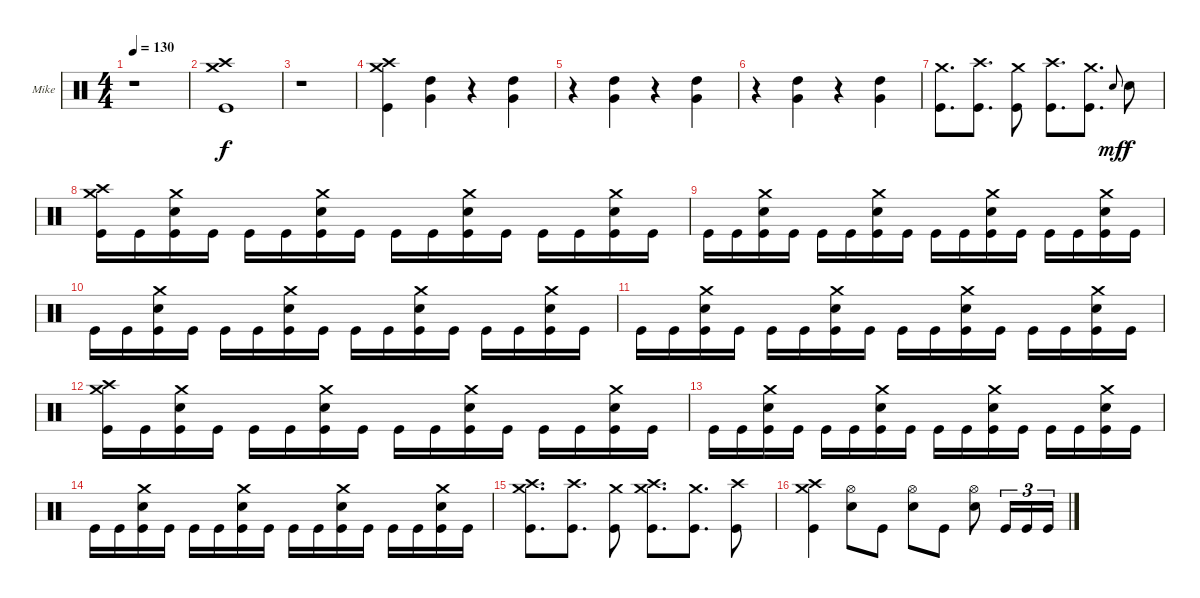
\defaultSystemsLayout 4
\bracketExtendMode groupsimilarinstruments
\firstSystemTrackNameOrientation horizontal
\otherSystemsTrackNameOrientation horizontal
\track ("Mike Portnoy" "Mike") {instrument percussion}
\staff {score}
\articulation defaults
\ts (4 4)
\tempo 130
\clef neutral
\ks c
r.1{dy f} |
("Crash medium (hit)" "Crash high (hit)" "Kick (hit)").1 |
r.1 |
("Crash medium (hit)" "Crash high (hit)" "Kick (hit)").4 ("High Tom (hit)" "Very Low Tom (hit)").4 r.4 ("High Tom (hit)" "Very Low Tom (hit)").4 |
r.4 ("High Tom (hit)" "Very Low Tom (hit)").4 r.4 ("High Tom (hit)" "Very Low Tom (hit)").4 |
r.4 ("High Tom (hit)" "Very Low Tom (hit)").4 r.4 ("High Tom (hit)" "Very Low Tom (hit)").4 |
("Crash medium (hit)" "Kick (hit)").8{d} ("Crash high (hit)" "Kick (hit)").8{d} ("Crash medium (hit)" "Kick (hit)").8 ("Crash high (hit)" "Kick (hit)").8{d} ("Crash medium (hit)" "Kick (hit)").8{d} "Snare (hit) 2".8{gr onbeat dy mf} "Snare (hit) 2".8{dy f} |
("Crash medium (hit)" "Crash high (hit)" "Kick (hit)").16 "Kick (hit)".16 ("Crash medium (hit)" "Snare (hit) 2" "Kick (hit)").16 "Kick (hit)".16 "Kick (hit)".16 "Kick (hit)".16 ("Crash medium (hit)" "Snare (hit) 2" "Kick (hit)").16 "Kick (hit)".16 "Kick (hit)".16 "Kick (hit)".16 ("Crash medium (hit)" "Snare (hit) 2" "Kick (hit)").16 "Kick (hit)".16 "Kick (hit)".16 "Kick (hit)".16 ("Crash medium (hit)" "Snare (hit) 2" "Kick (hit)").16 "Kick (hit)".16 |
"Kick (hit)".16 "Kick (hit)".16 ("Crash medium (hit)" "Snare (hit) 2" "Kick (hit)").16 "Kick (hit)".16 "Kick (hit)".16 "Kick (hit)".16 ("Crash medium (hit)" "Snare (hit) 2" "Kick (hit)").16 "Kick (hit)".16 "Kick (hit)".16 "Kick (hit)".16 ("Crash medium (hit)" "Snare (hit) 2" "Kick (hit)").16 "Kick (hit)".16 "Kick (hit)".16 "Kick (hit)".16 ("Crash medium (hit)" "Snare (hit) 2" "Kick (hit)").16 "Kick (hit)".16 |
"Kick (hit)".16 "Kick (hit)".16 ("Crash medium (hit)" "Snare (hit) 2" "Kick (hit)").16 "Kick (hit)".16 "Kick (hit)".16 "Kick (hit)".16 ("Crash medium (hit)" "Snare (hit) 2" "Kick (hit)").16 "Kick (hit)".16 "Kick (hit)".16 "Kick (hit)".16 ("Crash medium (hit)" "Snare (hit) 2" "Kick (hit)").16 "Kick (hit)".16 "Kick (hit)".16 "Kick (hit)".16 ("Crash medium (hit)" "Snare (hit) 2" "Kick (hit)").16 "Kick (hit)".16 |
"Kick (hit)".16 "Kick (hit)".16 ("Crash medium (hit)" "Snare (hit) 2" "Kick (hit)").16 "Kick (hit)".16 "Kick (hit)".16 "Kick (hit)".16 ("Crash medium (hit)" "Snare (hit) 2" "Kick (hit)").16 "Kick (hit)".16 "Kick (hit)".16 "Kick (hit)".16 ("Crash medium (hit)" "Snare (hit) 2" "Kick (hit)").16 "Kick (hit)".16 "Kick (hit)".16 "Kick (hit)".16 ("Crash medium (hit)" "Snare (hit) 2" "Kick (hit)").16 "Kick (hit)".16 |
("Crash medium (hit)" "Crash high (hit)" "Kick (hit)").16 "Kick (hit)".16 ("Crash medium (hit)" "Snare (hit) 2" "Kick (hit)").16 "Kick (hit)".16 "Kick (hit)".16 "Kick (hit)".16 ("Crash medium (hit)" "Snare (hit) 2" "Kick (hit)").16 "Kick (hit)".16 "Kick (hit)".16 "Kick (hit)".16 ("Crash medium (hit)" "Snare (hit) 2" "Kick (hit)").16 "Kick (hit)".16 "Kick (hit)".16 "Kick (hit)".16 ("Crash medium (hit)" "Snare (hit) 2" "Kick (hit)").16 "Kick (hit)".16 |
"Kick (hit)".16 "Kick (hit)".16 ("Crash medium (hit)" "Snare (hit) 2" "Kick (hit)").16 "Kick (hit)".16 "Kick (hit)".16 "Kick (hit)".16 ("Crash medium (hit)" "Snare (hit) 2" "Kick (hit)").16 "Kick (hit)".16 "Kick (hit)".16 "Kick (hit)".16 ("Crash medium (hit)" "Snare (hit) 2" "Kick (hit)").16 "Kick (hit)".16 "Kick (hit)".16 "Kick (hit)".16 ("Crash medium (hit)" "Snare (hit) 2" "Kick (hit)").16 "Kick (hit)".16 |
"Kick (hit)".16 "Kick (hit)".16 ("Crash medium (hit)" "Snare (hit) 2" "Kick (hit)").16 "Kick (hit)".16 "Kick (hit)".16 "Kick (hit)".16 ("Crash medium (hit)" "Snare (hit) 2" "Kick (hit)").16 "Kick (hit)".16 "Kick (hit)".16 "Kick (hit)".16 ("Crash medium (hit)" "Snare (hit) 2" "Kick (hit)").16 "Kick (hit)".16 "Kick (hit)".16 "Kick (hit)".16 ("Crash medium (hit)" "Snare (hit) 2" "Kick (hit)").16 "Kick (hit)".16 |
("Crash medium (hit)" "Crash high (hit)" "Kick (hit)").8{d} ("Crash high (hit)" "Kick (hit)").8{d} ("Crash medium (hit)" "Kick (hit)").8 ("Crash high (hit)" "Crash medium (hit)" "Kick (hit)").8{d} ("Crash medium (hit)" "Kick (hit)").8{d} ("Crash high (hit)" "Kick (hit)").8 |
("Crash medium (hit)" "Crash high (hit)" "Kick (hit)").4 ("Hi-Hat (open)" "Snare (hit) 2").8 "Kick (hit)".8 ("Hi-Hat (open)" "Snare (hit) 2").8 "Kick (hit)".8 ("Hi-Hat (open)" "Snare (hit) 2").8 "Kick (hit)".16{tu (3 2)} "Kick (hit)".16{tu (3 2)} "Kick (hit)".16{tu (3 2)}
